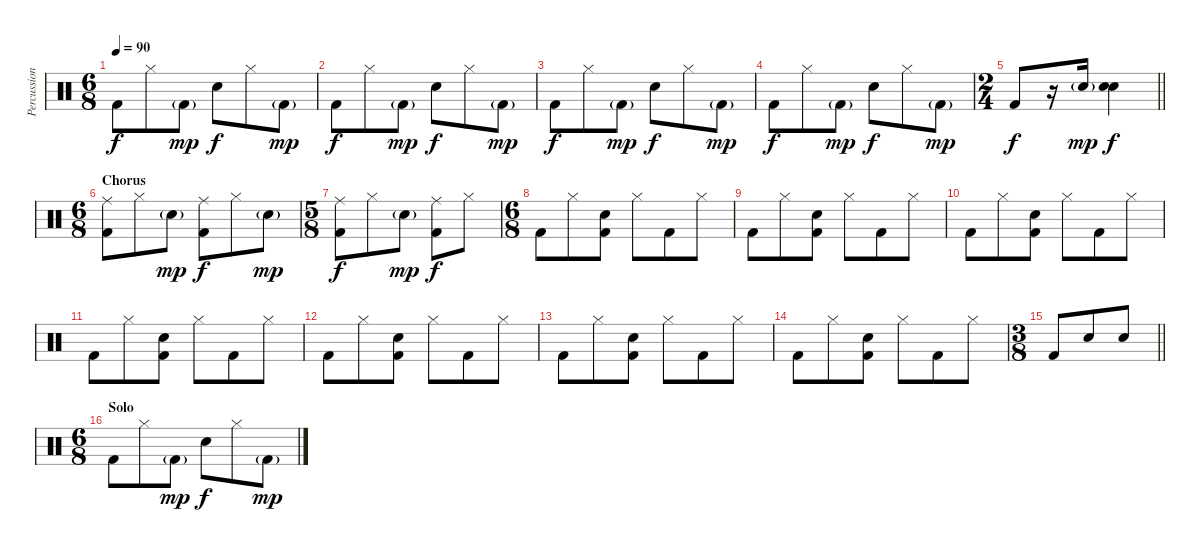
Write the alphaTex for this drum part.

\track ("Percussion" "Percussion") {instrument percussion}
\staff {score}
\articulation defaults
\ts (6 8)
\tempo 90
\clef neutral
\ks c "Kick (hit) 2".8{dy f} "Hi-Hat (closed)".8 "Kick (hit) 2"{g}.8{dy mp} "Snare (hit) 2".8{dy f} "Hi-Hat (closed)".8 "Kick (hit) 2"{g}.8{dy mp}
|
"Kick (hit) 2".8{dy f} "Hi-Hat (closed)".8 "Kick (hit) 2"{g}.8{dy mp} "Snare (hit) 2".8{dy f} "Hi-Hat (closed)".8 "Kick (hit) 2"{g}.8{dy mp} |
"Kick (hit) 2".8{dy f} "Hi-Hat (closed)".8 "Kick (hit) 2"{g}.8{dy mp} "Snare (hit) 2".8{dy f} "Hi-Hat (closed)".8 "Kick (hit) 2"{g}.8{dy mp} |
"Kick (hit) 2".8{dy f} "Hi-Hat (closed)".8 "Kick (hit) 2"{g}.8{dy mp} "Snare (hit) 2".8{dy f} "Hi-Hat (closed)".8 "Kick (hit) 2"{g}.8{dy mp} |
\ts (2 4)
\barLineRight lightlight "Kick (hit) 2".8{dy f}
r.16 "Snare (hit) 2"{g}.16{dy mp} ("Snare (hit) 2" "Snare (hit) 2").4{dy f} |
\ts (6 8)
\section ("" "Chorus")
("Ride (middle)" "Kick (hit) 2").8 "Hi-Hat (closed)".8 "Snare (hit) 2"{g}.8{dy mp} ("Ride (middle)" "Kick (hit) 2").8{dy f} "Hi-Hat (closed)".8 "Snare (hit) 2"{g}.8{dy mp} |
\ts (5 8)
("Ride (middle)" "Kick (hit) 2").8{dy f} "Hi-Hat (closed)".8 "Snare (hit) 2"{g}.8{dy mp} ("Ride (middle)" "Kick (hit) 2").8{dy f} "Hi-Hat (closed)".8 |
\ts (6 8)
"Kick (hit) 2".8 "Hi-Hat (closed)".8 ("Snare (hit) 2" "Kick (hit) 2").8 "Hi-Hat (closed)".8 "Kick (hit) 2".8 "Hi-Hat (closed)".8 |
"Kick (hit) 2".8 "Hi-Hat (closed)".8 ("Snare (hit) 2" "Kick (hit) 2").8 "Hi-Hat (closed)".8 "Kick (hit) 2".8 "Hi-Hat (closed)".8 |
"Kick (hit) 2".8 "Hi-Hat (closed)".8 ("Snare (hit) 2" "Kick (hit) 2").8 "Hi-Hat (closed)".8 "Kick (hit) 2".8 "Hi-Hat (closed)".8 |
"Kick (hit) 2".8 "Hi-Hat (closed)".8 ("Snare (hit) 2" "Kick (hit) 2").8 "Hi-Hat (closed)".8 "Kick (hit) 2".8 "Hi-Hat (closed)".8 |
"Kick (hit) 2".8 "Hi-Hat (closed)".8 ("Snare (hit) 2" "Kick (hit) 2").8 "Hi-Hat (closed)".8 "Kick (hit) 2".8 "Hi-Hat (closed)".8 |
"Kick (hit) 2".8 "Hi-Hat (closed)".8 ("Snare (hit) 2" "Kick (hit) 2").8 "Hi-Hat (closed)".8 "Kick (hit) 2".8 "Hi-Hat (closed)".8 |
"Kick (hit) 2".8 "Hi-Hat (closed)".8 ("Snare (hit) 2" "Kick (hit) 2").8 "Hi-Hat (closed)".8 "Kick (hit) 2".8 "Hi-Hat (closed)".8 |
\ts (3 8)
\barLineRight lightlight "Kick (hit) 2".8 "Snare (hit) 2".8 "Snare (hit) 2".8
|
\ts (6 8)
\section ("" "Solo")
"Kick (hit) 2".8 "Hi-Hat (closed)".8 "Kick (hit) 2"{g}.8{dy mp} "Snare (hit) 2".8{dy f} "Hi-Hat (closed)".8 "Kick (hit) 2"{g}.8{dy mp}
